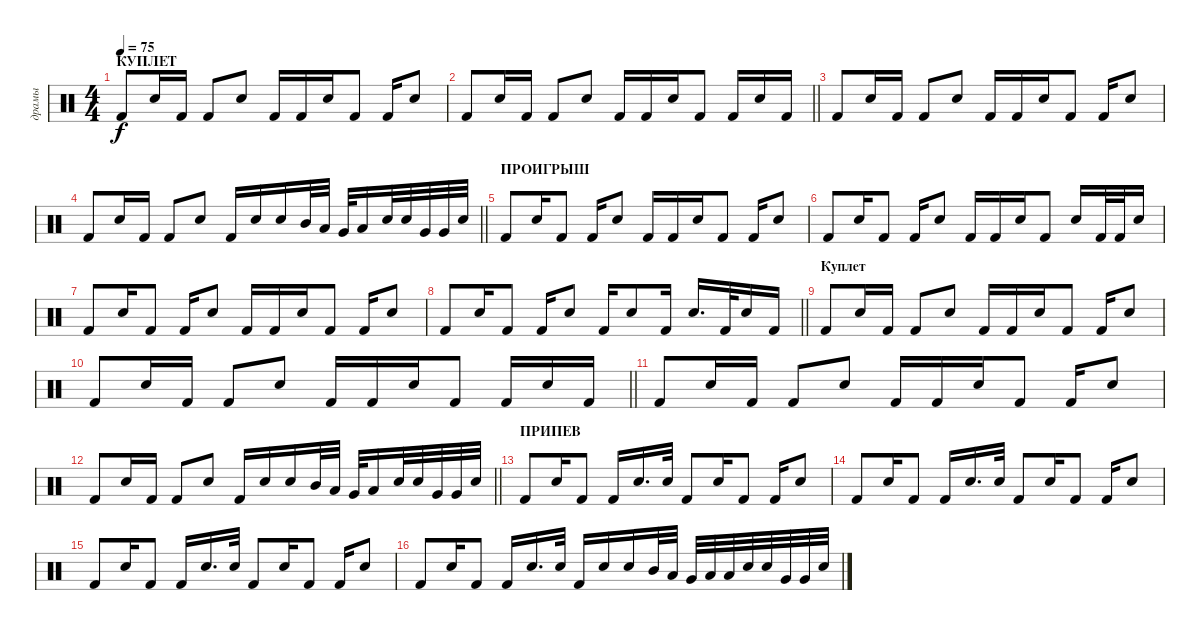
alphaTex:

\track ("драмы" "драмы") {instrument percussion}
\staff {score}
\articulation defaults
\ts (4 4)
\section ("" "КУПЛЕТ")
\tempo 75
\clef neutral
\ks c "Kick (hit) 2".8{dy f} "Electric Snare (hit)".16 "Kick (hit) 2".16 "Kick (hit) 2".8 "Electric Snare (hit)".8 "Kick (hit) 2".16 "Kick (hit) 2".16 "Electric Snare (hit)".16 "Kick (hit) 2".8 "Kick (hit) 2".16 "Electric Snare (hit)".8
|
\barLineRight lightlight "Kick (hit) 2".8 "Electric Snare (hit)".16 "Kick (hit) 2".16 "Kick (hit) 2".8 "Electric Snare (hit)".8 "Kick (hit) 2".16 "Kick (hit) 2".16 "Electric Snare (hit)".16 "Kick (hit) 2".8 "Kick (hit) 2".16 "Electric Snare (hit)".16 "Kick (hit) 2".16
|
"Kick (hit) 2".8 "Electric Snare (hit)".16 "Kick (hit) 2".16 "Kick (hit) 2".8 "Electric Snare (hit)".8 "Kick (hit) 2".16 "Kick (hit) 2".16 "Electric Snare (hit)".16 "Kick (hit) 2".8 "Kick (hit) 2".16 "Electric Snare (hit)".8 |
\barLineRight lightlight "Kick (hit) 2".8 "Electric Snare (hit)".16 "Kick (hit) 2".16 "Kick (hit) 2".8 "Electric Snare (hit)".8 "Kick (hit) 2".16 "Electric Snare (hit)".16 "Electric Snare (hit)".16 "Mid Tom (hit)".32 "Low Tom (hit)".32 "Very Low Tom (hit)".32 "Low Floor Tom (hit)".16 "Electric Snare (hit)".32 "Electric Snare (hit)".32 "Very Low Tom (hit)".32 "Very Low Tom (hit)".32 "Electric Snare (hit)".32
|
\section ("" "ПРОИГРЫШ")
"Kick (hit) 2".8 "Electric Snare (hit)".16 "Kick (hit) 2".8 "Kick (hit) 2".16 "Electric Snare (hit)".8 "Kick (hit) 2".16 "Kick (hit) 2".16 "Electric Snare (hit)".16 "Kick (hit) 2".8 "Kick (hit) 2".16 "Electric Snare (hit)".8 |
"Kick (hit) 2".8 "Electric Snare (hit)".16 "Kick (hit) 2".8 "Kick (hit) 2".16 "Electric Snare (hit)".8 "Kick (hit) 2".16 "Kick (hit) 2".16 "Electric Snare (hit)".16 "Kick (hit) 2".8 "Electric Snare (hit)".16 "Kick (hit) 2".32 "Kick (hit) 2".32 "Electric Snare (hit)".16 |
"Kick (hit) 2".8 "Electric Snare (hit)".16 "Kick (hit) 2".8 "Kick (hit) 2".16 "Electric Snare (hit)".8 "Kick (hit) 2".16 "Kick (hit) 2".16 "Electric Snare (hit)".16 "Kick (hit) 2".8 "Kick (hit) 2".16 "Electric Snare (hit)".8 |
\barLineRight lightlight "Kick (hit) 2".8 "Electric Snare (hit)".16 "Kick (hit) 2".8 "Kick (hit) 2".16 "Electric Snare (hit)".8 "Kick (hit) 2".16 "Electric Snare (hit)".8 "Kick (hit) 2".16 "Electric Snare (hit)".16{d} "Kick (hit) 2".32 "Electric Snare (hit)".16 "Kick (hit) 2".16
|
\section ("" "Куплет")
"Kick (hit) 2".8 "Electric Snare (hit)".16 "Kick (hit) 2".16 "Kick (hit) 2".8 "Electric Snare (hit)".8 "Kick (hit) 2".16 "Kick (hit) 2".16 "Electric Snare (hit)".16 "Kick (hit) 2".8 "Kick (hit) 2".16 "Electric Snare (hit)".8 |
\barLineRight lightlight "Kick (hit) 2".8 "Electric Snare (hit)".16 "Kick (hit) 2".16 "Kick (hit) 2".8 "Electric Snare (hit)".8 "Kick (hit) 2".16 "Kick (hit) 2".16 "Electric Snare (hit)".16 "Kick (hit) 2".8 "Kick (hit) 2".16 "Electric Snare (hit)".16 "Kick (hit) 2".16
|
"Kick (hit) 2".8 "Electric Snare (hit)".16 "Kick (hit) 2".16 "Kick (hit) 2".8 "Electric Snare (hit)".8 "Kick (hit) 2".16 "Kick (hit) 2".16 "Electric Snare (hit)".16 "Kick (hit) 2".8 "Kick (hit) 2".16 "Electric Snare (hit)".8 |
\barLineRight lightlight "Kick (hit) 2".8 "Electric Snare (hit)".16 "Kick (hit) 2".16 "Kick (hit) 2".8 "Electric Snare (hit)".8 "Kick (hit) 2".16 "Electric Snare (hit)".16 "Electric Snare (hit)".16 "Mid Tom (hit)".32 "Low Tom (hit)".32 "Very Low Tom (hit)".32 "Low Floor Tom (hit)".16 "Electric Snare (hit)".32 "Electric Snare (hit)".32 "Very Low Tom (hit)".32 "Very Low Tom (hit)".32 "Electric Snare (hit)".32
|
\section ("" "ПРИПЕВ")
"Kick (hit) 2".8 "Electric Snare (hit)".16 "Kick (hit) 2".8 "Kick (hit) 2".16 "Electric Snare (hit)".16{d} "Electric Snare (hit)".32 "Kick (hit) 2".8 "Electric Snare (hit)".16 "Kick (hit) 2".8 "Kick (hit) 2".16 "Electric Snare (hit)".8 |
"Kick (hit) 2".8 "Electric Snare (hit)".16 "Kick (hit) 2".8 "Kick (hit) 2".16 "Electric Snare (hit)".16{d} "Electric Snare (hit)".32 "Kick (hit) 2".8 "Electric Snare (hit)".16 "Kick (hit) 2".8 "Kick (hit) 2".16 "Electric Snare (hit)".8 |
"Kick (hit) 2".8 "Electric Snare (hit)".16 "Kick (hit) 2".8 "Kick (hit) 2".16 "Electric Snare (hit)".16{d} "Electric Snare (hit)".32 "Kick (hit) 2".8 "Electric Snare (hit)".16 "Kick (hit) 2".8 "Kick (hit) 2".16 "Electric Snare (hit)".8 |
"Kick (hit) 2".8 "Electric Snare (hit)".16 "Kick (hit) 2".8 "Kick (hit) 2".16 "Electric Snare (hit)".16{d} "Electric Snare (hit)".32 "Kick (hit) 2".16 "Electric Snare (hit)".16 "Electric Snare (hit)".16 "Mid Tom (hit)".32 "Low Tom (hit)".32 "Very Low Tom (hit)".32 "Low Floor Tom (hit)".32 "Low Floor Tom (hit)".32 "Electric Snare (hit)".32 "Electric Snare (hit)".32 "Very Low Tom (hit)".32 "Very Low Tom (hit)".32 "Electric Snare (hit)".32
